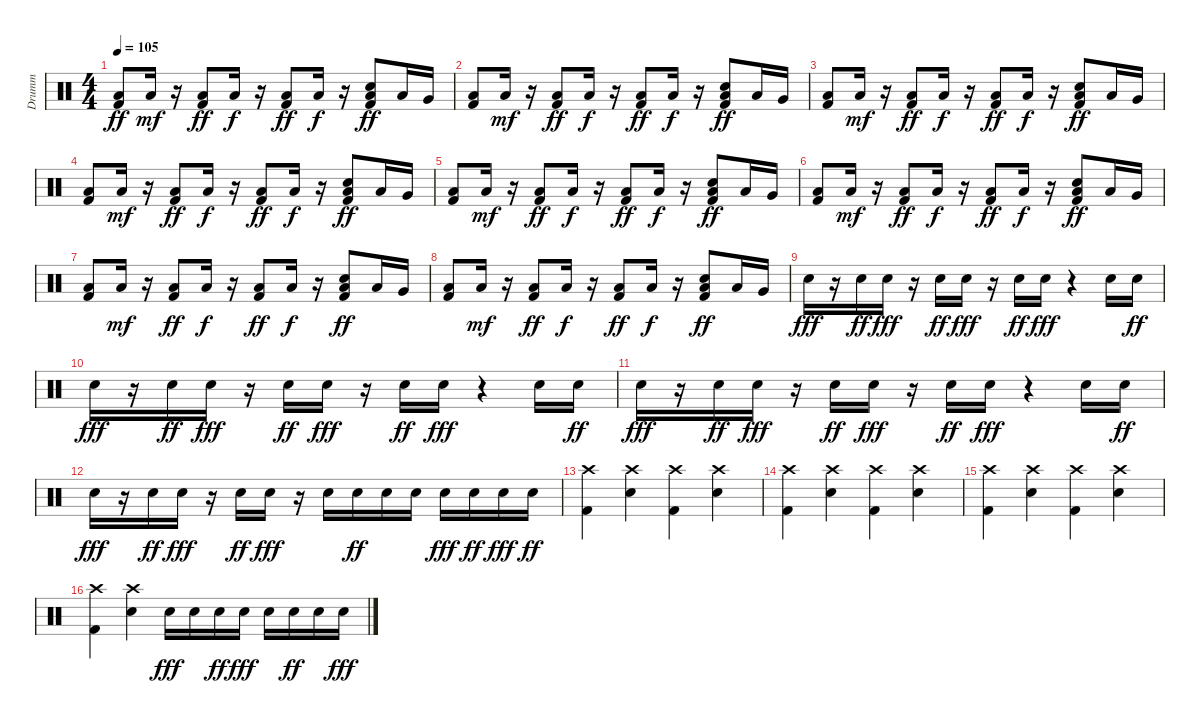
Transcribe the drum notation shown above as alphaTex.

\track ("Drumm" "Drumm") {instrument percussion}
\staff {score}
\articulation defaults
\ts (4 4)
\tempo 105
\clef neutral
\ks c
("Low Floor Tom (hit)" "Kick (hit) 2").8{dy ff} "Low Floor Tom (hit)".16{dy mf} r.16 ("Low Floor Tom (hit)" "Kick (hit) 2").8{dy ff} "Low Floor Tom (hit)".16{dy f} r.16 ("Low Floor Tom (hit)" "Kick (hit) 2").8{dy ff} "Low Floor Tom (hit)".16{dy f} r.16 ("Low Floor Tom (hit)" "Hand Clap (hit)" "Kick (hit) 2").8{dy ff} "Low Tom (hit)".16 "Very Low Tom (hit)".16 |
("Low Floor Tom (hit)" "Kick (hit) 2").8 "Low Floor Tom (hit)".16{dy mf} r.16 ("Low Floor Tom (hit)" "Kick (hit) 2").8{dy ff} "Low Floor Tom (hit)".16{dy f} r.16 ("Low Floor Tom (hit)" "Kick (hit) 2").8{dy ff} "Low Floor Tom (hit)".16{dy f} r.16 ("Low Floor Tom (hit)" "Hand Clap (hit)" "Kick (hit) 2").8{dy ff} "Low Tom (hit)".16 "Very Low Tom (hit)".16 |
("Low Floor Tom (hit)" "Kick (hit) 2").8 "Low Floor Tom (hit)".16{dy mf} r.16 ("Low Floor Tom (hit)" "Kick (hit) 2").8{dy ff} "Low Floor Tom (hit)".16{dy f} r.16 ("Low Floor Tom (hit)" "Kick (hit) 2").8{dy ff} "Low Floor Tom (hit)".16{dy f} r.16 ("Low Floor Tom (hit)" "Hand Clap (hit)" "Kick (hit) 2").8{dy ff} "Low Tom (hit)".16 "Very Low Tom (hit)".16 |
("Low Floor Tom (hit)" "Kick (hit) 2").8 "Low Floor Tom (hit)".16{dy mf} r.16 ("Low Floor Tom (hit)" "Kick (hit) 2").8{dy ff} "Low Floor Tom (hit)".16{dy f} r.16 ("Low Floor Tom (hit)" "Kick (hit) 2").8{dy ff} "Low Floor Tom (hit)".16{dy f} r.16 ("Low Floor Tom (hit)" "Hand Clap (hit)" "Kick (hit) 2").8{dy ff} "Low Tom (hit)".16 "Very Low Tom (hit)".16 |
("Low Floor Tom (hit)" "Kick (hit) 2").8 "Low Floor Tom (hit)".16{dy mf} r.16 ("Low Floor Tom (hit)" "Kick (hit) 2").8{dy ff} "Low Floor Tom (hit)".16{dy f} r.16 ("Low Floor Tom (hit)" "Kick (hit) 2").8{dy ff} "Low Floor Tom (hit)".16{dy f} r.16 ("Low Floor Tom (hit)" "Hand Clap (hit)" "Kick (hit) 2").8{dy ff} "Low Tom (hit)".16 "Very Low Tom (hit)".16 |
("Low Floor Tom (hit)" "Kick (hit) 2").8 "Low Floor Tom (hit)".16{dy mf} r.16 ("Low Floor Tom (hit)" "Kick (hit) 2").8{dy ff} "Low Floor Tom (hit)".16{dy f} r.16 ("Low Floor Tom (hit)" "Kick (hit) 2").8{dy ff} "Low Floor Tom (hit)".16{dy f} r.16 ("Low Floor Tom (hit)" "Hand Clap (hit)" "Kick (hit) 2").8{dy ff} "Low Tom (hit)".16 "Very Low Tom (hit)".16 |
("Low Floor Tom (hit)" "Kick (hit) 2").8 "Low Floor Tom (hit)".16{dy mf} r.16 ("Low Floor Tom (hit)" "Kick (hit) 2").8{dy ff} "Low Floor Tom (hit)".16{dy f} r.16 ("Low Floor Tom (hit)" "Kick (hit) 2").8{dy ff} "Low Floor Tom (hit)".16{dy f} r.16 ("Low Floor Tom (hit)" "Hand Clap (hit)" "Kick (hit) 2").8{dy ff} "Low Tom (hit)".16 "Very Low Tom (hit)".16 |
("Low Floor Tom (hit)" "Kick (hit) 2").8 "Low Floor Tom (hit)".16{dy mf} r.16 ("Low Floor Tom (hit)" "Kick (hit) 2").8{dy ff} "Low Floor Tom (hit)".16{dy f} r.16 ("Low Floor Tom (hit)" "Kick (hit) 2").8{dy ff} "Low Floor Tom (hit)".16{dy f} r.16 ("Low Floor Tom (hit)" "Hand Clap (hit)" "Kick (hit) 2").8{dy ff} "Low Tom (hit)".16 "Very Low Tom (hit)".16 |
"Snare (hit) 2".16{dy fff} r.16 "Snare (hit) 2".16{dy ff} "Snare (hit) 2".16{dy fff} r.16 "Snare (hit) 2".16{dy ff} "Snare (hit) 2".16{dy fff} r.16 "Snare (hit) 2".16{dy ff} "Snare (hit) 2".16{dy fff} r.4 "Snare (hit) 2".16 "Snare (hit) 2".16{dy ff} |
"Snare (hit) 2".16{dy fff} r.16 "Snare (hit) 2".16{dy ff} "Snare (hit) 2".16{dy fff} r.16 "Snare (hit) 2".16{dy ff} "Snare (hit) 2".16{dy fff} r.16 "Snare (hit) 2".16{dy ff} "Snare (hit) 2".16{dy fff} r.4 "Snare (hit) 2".16 "Snare (hit) 2".16{dy ff} |
"Snare (hit) 2".16{dy fff} r.16 "Snare (hit) 2".16{dy ff} "Snare (hit) 2".16{dy fff} r.16 "Snare (hit) 2".16{dy ff} "Snare (hit) 2".16{dy fff} r.16 "Snare (hit) 2".16{dy ff} "Snare (hit) 2".16{dy fff} r.4 "Snare (hit) 2".16 "Snare (hit) 2".16{dy ff} |
"Snare (hit) 2".16{dy fff} r.16 "Snare (hit) 2".16{dy ff} "Snare (hit) 2".16{dy fff} r.16 "Snare (hit) 2".16{dy ff} "Snare (hit) 2".16{dy fff} r.16 "Snare (hit) 2".16 "Snare (hit) 2".16{dy ff} "Snare (hit) 2".16 "Snare (hit) 2".16 "Snare (hit) 2".16{dy fff} "Snare (hit) 2".16{dy ff} "Snare (hit) 2".16{dy fff} "Snare (hit) 2".16{dy ff} |
("Kick (hit) 2" "Crash high (hit)").4 ("Snare (hit) 2" "Crash high (hit)").4 ("Kick (hit) 2" "Crash high (hit)").4 ("Snare (hit) 2" "Crash high (hit)").4 |
("Kick (hit) 2" "Crash high (hit)").4 ("Snare (hit) 2" "Crash high (hit)").4 ("Kick (hit) 2" "Crash high (hit)").4 ("Snare (hit) 2" "Crash high (hit)").4 |
("Kick (hit) 2" "Crash high (hit)").4 ("Snare (hit) 2" "Crash high (hit)").4 ("Kick (hit) 2" "Crash high (hit)").4 ("Snare (hit) 2" "Crash high (hit)").4 |
("Kick (hit) 2" "Crash high (hit)").4 ("Snare (hit) 2" "Crash high (hit)").4 "Snare (hit) 2".16{dy fff} "Snare (hit) 2".16 "Snare (hit) 2".16{dy ff} "Snare (hit) 2".16{dy fff} "Snare (hit) 2".16 "Snare (hit) 2".16{dy ff} "Snare (hit) 2".16 "Snare (hit) 2".16{dy fff}
